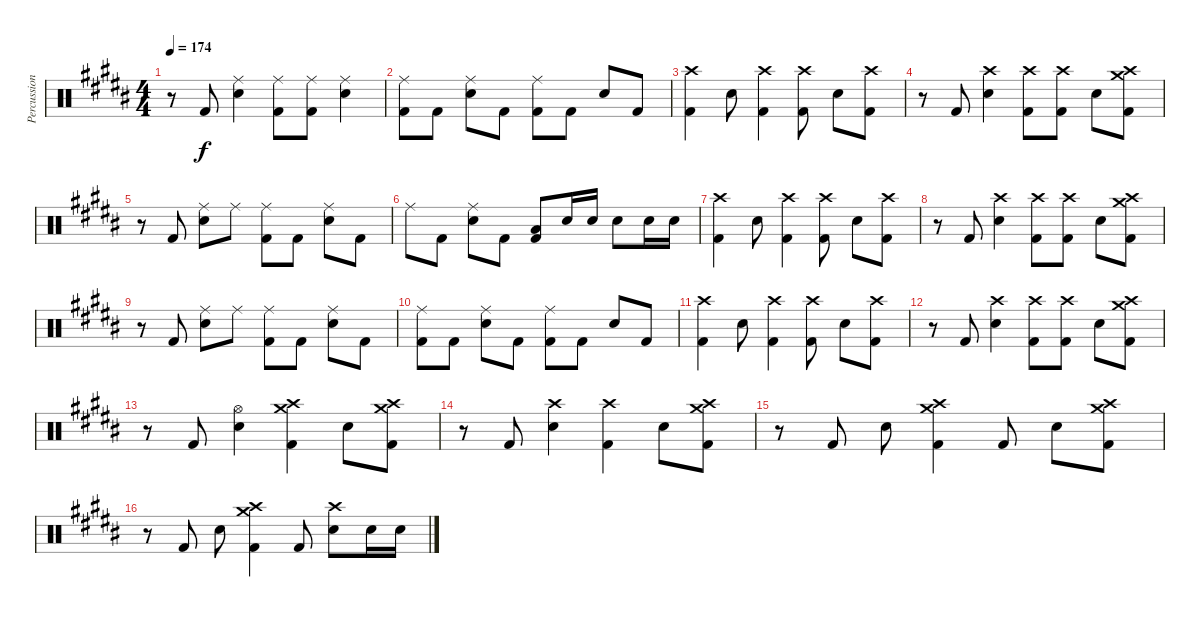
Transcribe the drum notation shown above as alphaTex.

\track ("Percussion" "Percussion") {instrument percussion}
\staff {score}
\articulation defaults
\ts (4 4)
\tempo 174
\clef neutral
\ks b
r.8{dy f} "Kick (hit) 2".8 ("Ride (middle)" "Electric Snare (hit)").4 ("Ride (middle)" "Kick (hit) 2").8 ("Ride (middle)" "Kick (hit) 2").8 ("Ride (middle)" "Electric Snare (hit)").4 |
("Ride (middle)" "Kick (hit) 2").8 "Kick (hit) 2".8 ("Ride (middle)" "Electric Snare (hit)").8 "Kick (hit) 2".8 ("Ride (middle)" "Kick (hit) 2").8 "Kick (hit) 2".8 "Electric Snare (hit)".8 "Kick (hit) 2".8 |
("Crash high (hit)" "Kick (hit) 2").4 "Electric Snare (hit)".8 ("Crash high (hit)" "Kick (hit) 2").4 ("Crash high (hit)" "Kick (hit) 2").8 "Electric Snare (hit)".8 ("Crash high (hit)" "Kick (hit) 2").8 |
r.8 "Kick (hit) 2".8 ("Crash high (hit)" "Electric Snare (hit)").4 ("Crash high (hit)" "Kick (hit) 2").8 ("Crash high (hit)" "Kick (hit) 2").8 "Electric Snare (hit)".8 ("Crash high (hit)" "Crash medium (hit)" "Kick (hit) 2").8 |
r.8 "Kick (hit) 2".8 ("Ride (middle)" "Electric Snare (hit)").8 "Ride (middle)".8 ("Ride (middle)" "Kick (hit) 2").8 "Kick (hit) 2".8 ("Ride (middle)" "Electric Snare (hit)").8 "Kick (hit) 2".8 |
"Ride (middle)".8 "Kick (hit) 2".8 ("Ride (middle)" "Electric Snare (hit)").8 "Kick (hit) 2".8 ("Low Tom (hit)" "Kick (hit) 2").8 "Electric Snare (hit)".16 "Electric Snare (hit)".16 "Electric Snare (hit)".8 "Electric Snare (hit)".16 "Electric Snare (hit)".16 |
("Crash high (hit)" "Kick (hit) 2").4 "Electric Snare (hit)".8 ("Crash high (hit)" "Kick (hit) 2").4 ("Crash high (hit)" "Kick (hit) 2").8 "Electric Snare (hit)".8 ("Crash high (hit)" "Kick (hit) 2").8 |
r.8 "Kick (hit) 2".8 ("Crash high (hit)" "Electric Snare (hit)").4 ("Crash high (hit)" "Kick (hit) 2").8 ("Crash high (hit)" "Kick (hit) 2").8 "Electric Snare (hit)".8 ("Crash high (hit)" "Crash medium (hit)" "Kick (hit) 2").8 |
r.8 "Kick (hit) 2".8 ("Ride (middle)" "Electric Snare (hit)").8 "Ride (middle)".8 ("Ride (middle)" "Kick (hit) 2").8 "Kick (hit) 2".8 ("Ride (middle)" "Electric Snare (hit)").8 "Kick (hit) 2".8 |
("Ride (middle)" "Kick (hit) 2").8 "Kick (hit) 2".8 ("Ride (middle)" "Electric Snare (hit)").8 "Kick (hit) 2".8 ("Ride (middle)" "Kick (hit) 2").8 "Kick (hit) 2".8 "Electric Snare (hit)".8 "Kick (hit) 2".8 |
("Crash high (hit)" "Kick (hit) 2").4 "Electric Snare (hit)".8 ("Crash high (hit)" "Kick (hit) 2").4 ("Crash high (hit)" "Kick (hit) 2").8 "Electric Snare (hit)".8 ("Crash high (hit)" "Kick (hit) 2").8 |
r.8 "Kick (hit) 2".8 ("Crash high (hit)" "Electric Snare (hit)").4 ("Crash high (hit)" "Kick (hit) 2").8 ("Crash high (hit)" "Kick (hit) 2").8 "Electric Snare (hit)".8 ("Crash high (hit)" "Crash medium (hit)" "Kick (hit) 2").8 |
r.8 "Kick (hit) 2".8 ("Hi-Hat (open)" "Electric Snare (hit)").4 ("Crash high (hit)" "Crash medium (hit)" "Kick (hit) 2").4 "Electric Snare (hit)".8 ("Crash high (hit)" "Crash medium (hit)" "Kick (hit) 2").8 |
r.8 "Kick (hit) 2".8 ("Crash high (hit)" "Electric Snare (hit)").4 ("Crash high (hit)" "Kick (hit) 2").4 "Electric Snare (hit)".8 ("Crash high (hit)" "Crash medium (hit)" "Kick (hit) 2").8 |
r.8 "Kick (hit) 2".8 "Electric Snare (hit)".8 ("Crash high (hit)" "Crash medium (hit)" "Kick (hit) 2").4 "Kick (hit) 2".8 "Electric Snare (hit)".8 ("Crash high (hit)" "Crash medium (hit)" "Kick (hit) 2").8 |
r.8 "Kick (hit) 2".8 "Electric Snare (hit)".8 ("Crash high (hit)" "Crash medium (hit)" "Kick (hit) 2").4 "Kick (hit) 2".8 ("Crash high (hit)" "Electric Snare (hit)").8 "Electric Snare (hit)".16 "Electric Snare (hit)".16
